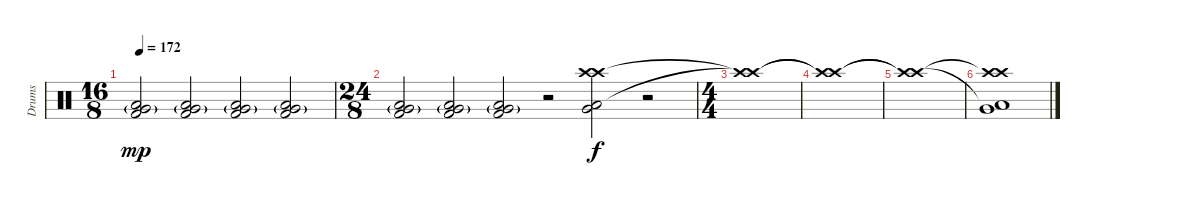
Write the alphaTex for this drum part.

\track ("Drums" "Drums") {instrument percussion}
\staff {score}
\articulation defaults
\ts (16 8)
\tempo 172
\clef neutral
\ks c
("Kick (hit) 2" "Low Floor Tom (hit)" "Very Low Tom (hit)"{g}).2{dy mp} ("Kick (hit) 2" "Low Floor Tom (hit)" "Very Low Tom (hit)"{g}).2 ("Kick (hit) 2" "Low Floor Tom (hit)" "Very Low Tom (hit)"{g}).2 ("Kick (hit) 2" "Low Floor Tom (hit)" "Very Low Tom (hit)"{g}).2 |
\ts (24 8)
("Kick (hit) 2" "Low Floor Tom (hit)" "Very Low Tom (hit)"{g}).2 ("Kick (hit) 2" "Low Floor Tom (hit)" "Very Low Tom (hit)"{g}).2 ("Kick (hit) 2" "Low Floor Tom (hit)" "Very Low Tom (hit)"{g}).2 r.2 ("Crash high (hit)" "Low Floor Tom (hit)" "Very Low Tom (hit)" "Crash high (hit)").2{dy f} r.2 |
\ts (4 4)
("Crash high (hit)"{t} "Crash high (hit)"{t}).1 |
("Crash high (hit)"{t} "Crash high (hit)"{t}).1 |
("Crash high (hit)"{t} "Crash high (hit)"{t}).1 |
("Crash high (hit)"{t} "Low Floor Tom (hit)"{t} "Very Low Tom (hit)" "Crash high (hit)").1
